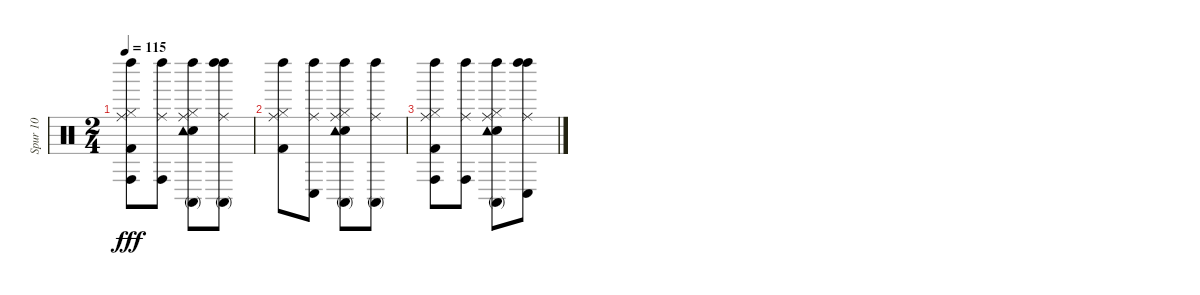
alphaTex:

\track ("Spur 10" "Spur 10") {instrument percussion}
\staff {score}
\articulation defaults
\ts (2 4)
\tempo 115
\clef neutral
\ks c
("Left Maraca (hit)" "Hi-Hat (closed)" "Kick (hit) 2" "Conga high (hit)" "Ride (middle)").8{dy fff} ("Left Maraca (hit)" "Conga high (hit)" "Ride (middle)").8 ("Conga high (mute)" "Left Maraca (hit)" "Hi-Hat (closed)" "Electric Snare (hit)" "Tambourine (hit)" "Ride (middle)").8 ("Left Maraca (hit)" "Left Maraca (hit)" "Conga high (mute)" "Ride (middle)").8 |
("Left Maraca (hit)" "Hi-Hat (closed)" "Kick (hit) 2" "Ride (middle)").8 ("Left Maraca (hit)" "Conga low (hit)" "Ride (middle)").8 ("Left Maraca (hit)" "Hi-Hat (closed)" "Electric Snare (hit)" "Tambourine (hit)" "Conga high (mute)" "Ride (middle)").8 ("Left Maraca (hit)" "Conga high (mute)" "Ride (middle)").8 |
("Left Maraca (hit)" "Hi-Hat (closed)" "Kick (hit) 2" "Conga high (hit)" "Ride (middle)").8 ("Left Maraca (hit)" "Conga high (hit)" "Ride (middle)").8 ("Left Maraca (hit)" "Hi-Hat (closed)" "Electric Snare (hit)" "Tambourine (hit)" "Conga high (mute)" "Ride (middle)").8 ("Left Maraca (hit)" "Left Maraca (hit)" "Conga low (hit)" "Ride (middle)").8
